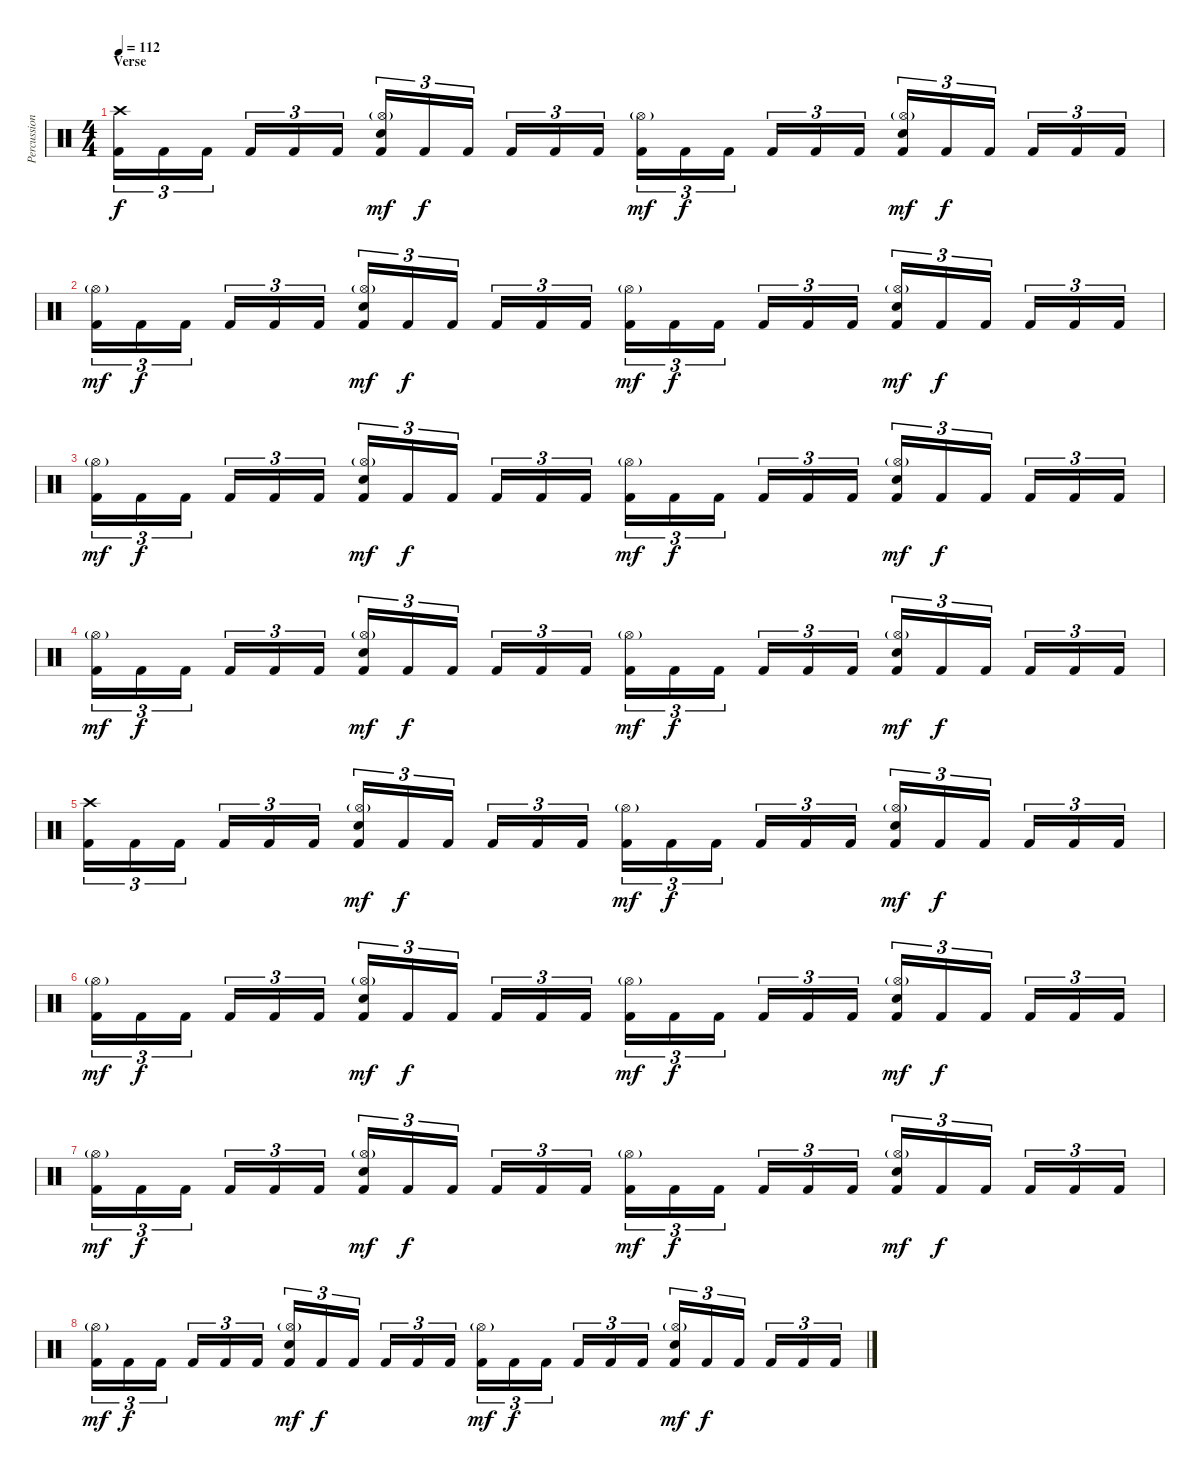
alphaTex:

\track ("Percussion" "Percussion") {instrument percussion}
\staff {score}
\articulation defaults
\ts (4 4)
\section ("" "Verse")
\tempo 112
\clef neutral
\ks c
("Crash high (hit)" "Kick (hit) 2").16{tu (3 2) dy f} "Kick (hit) 2".16{tu (3 2)} "Kick (hit) 2".16{tu (3 2)} "Kick (hit) 2".16{tu (3 2)} "Kick (hit) 2".16{tu (3 2)} "Kick (hit) 2".16{tu (3 2)} ("Hi-Hat (open)"{g} "Electric Snare (hit)" "Kick (hit) 2").16{tu (3 2) dy mf} "Kick (hit) 2".16{tu (3 2) dy f} "Kick (hit) 2".16{tu (3 2)} "Kick (hit) 2".16{tu (3 2)} "Kick (hit) 2".16{tu (3 2)} "Kick (hit) 2".16{tu (3 2)} ("Hi-Hat (open)"{g} "Kick (hit) 2").16{tu (3 2) dy mf} "Kick (hit) 2".16{tu (3 2) dy f} "Kick (hit) 2".16{tu (3 2)} "Kick (hit) 2".16{tu (3 2)} "Kick (hit) 2".16{tu (3 2)} "Kick (hit) 2".16{tu (3 2)} ("Hi-Hat (open)"{g} "Electric Snare (hit)" "Kick (hit) 2").16{tu (3 2) dy mf} "Kick (hit) 2".16{tu (3 2) dy f} "Kick (hit) 2".16{tu (3 2)} "Kick (hit) 2".16{tu (3 2)} "Kick (hit) 2".16{tu (3 2)} "Kick (hit) 2".16{tu (3 2)} |
("Hi-Hat (open)"{g} "Kick (hit) 2").16{tu (3 2) dy mf} "Kick (hit) 2".16{tu (3 2) dy f} "Kick (hit) 2".16{tu (3 2)} "Kick (hit) 2".16{tu (3 2)} "Kick (hit) 2".16{tu (3 2)} "Kick (hit) 2".16{tu (3 2)} ("Hi-Hat (open)"{g} "Electric Snare (hit)" "Kick (hit) 2").16{tu (3 2) dy mf} "Kick (hit) 2".16{tu (3 2) dy f} "Kick (hit) 2".16{tu (3 2)} "Kick (hit) 2".16{tu (3 2)} "Kick (hit) 2".16{tu (3 2)} "Kick (hit) 2".16{tu (3 2)} ("Hi-Hat (open)"{g} "Kick (hit) 2").16{tu (3 2) dy mf} "Kick (hit) 2".16{tu (3 2) dy f} "Kick (hit) 2".16{tu (3 2)} "Kick (hit) 2".16{tu (3 2)} "Kick (hit) 2".16{tu (3 2)} "Kick (hit) 2".16{tu (3 2)} ("Hi-Hat (open)"{g} "Electric Snare (hit)" "Kick (hit) 2").16{tu (3 2) dy mf} "Kick (hit) 2".16{tu (3 2) dy f} "Kick (hit) 2".16{tu (3 2)} "Kick (hit) 2".16{tu (3 2)} "Kick (hit) 2".16{tu (3 2)} "Kick (hit) 2".16{tu (3 2)} |
("Hi-Hat (open)"{g} "Kick (hit) 2").16{tu (3 2) dy mf} "Kick (hit) 2".16{tu (3 2) dy f} "Kick (hit) 2".16{tu (3 2)} "Kick (hit) 2".16{tu (3 2)} "Kick (hit) 2".16{tu (3 2)} "Kick (hit) 2".16{tu (3 2)} ("Hi-Hat (open)"{g} "Electric Snare (hit)" "Kick (hit) 2").16{tu (3 2) dy mf} "Kick (hit) 2".16{tu (3 2) dy f} "Kick (hit) 2".16{tu (3 2)} "Kick (hit) 2".16{tu (3 2)} "Kick (hit) 2".16{tu (3 2)} "Kick (hit) 2".16{tu (3 2)} ("Hi-Hat (open)"{g} "Kick (hit) 2").16{tu (3 2) dy mf} "Kick (hit) 2".16{tu (3 2) dy f} "Kick (hit) 2".16{tu (3 2)} "Kick (hit) 2".16{tu (3 2)} "Kick (hit) 2".16{tu (3 2)} "Kick (hit) 2".16{tu (3 2)} ("Hi-Hat (open)"{g} "Electric Snare (hit)" "Kick (hit) 2").16{tu (3 2) dy mf} "Kick (hit) 2".16{tu (3 2) dy f} "Kick (hit) 2".16{tu (3 2)} "Kick (hit) 2".16{tu (3 2)} "Kick (hit) 2".16{tu (3 2)} "Kick (hit) 2".16{tu (3 2)} |
("Hi-Hat (open)"{g} "Kick (hit) 2").16{tu (3 2) dy mf} "Kick (hit) 2".16{tu (3 2) dy f} "Kick (hit) 2".16{tu (3 2)} "Kick (hit) 2".16{tu (3 2)} "Kick (hit) 2".16{tu (3 2)} "Kick (hit) 2".16{tu (3 2)} ("Hi-Hat (open)"{g} "Electric Snare (hit)" "Kick (hit) 2").16{tu (3 2) dy mf} "Kick (hit) 2".16{tu (3 2) dy f} "Kick (hit) 2".16{tu (3 2)} "Kick (hit) 2".16{tu (3 2)} "Kick (hit) 2".16{tu (3 2)} "Kick (hit) 2".16{tu (3 2)} ("Hi-Hat (open)"{g} "Kick (hit) 2").16{tu (3 2) dy mf} "Kick (hit) 2".16{tu (3 2) dy f} "Kick (hit) 2".16{tu (3 2)} "Kick (hit) 2".16{tu (3 2)} "Kick (hit) 2".16{tu (3 2)} "Kick (hit) 2".16{tu (3 2)} ("Hi-Hat (open)"{g} "Electric Snare (hit)" "Kick (hit) 2").16{tu (3 2) dy mf} "Kick (hit) 2".16{tu (3 2) dy f} "Kick (hit) 2".16{tu (3 2)} "Kick (hit) 2".16{tu (3 2)} "Kick (hit) 2".16{tu (3 2)} "Kick (hit) 2".16{tu (3 2)} |
("Crash high (hit)" "Kick (hit) 2").16{tu (3 2)} "Kick (hit) 2".16{tu (3 2)} "Kick (hit) 2".16{tu (3 2)} "Kick (hit) 2".16{tu (3 2)} "Kick (hit) 2".16{tu (3 2)} "Kick (hit) 2".16{tu (3 2)} ("Hi-Hat (open)"{g} "Electric Snare (hit)" "Kick (hit) 2").16{tu (3 2) dy mf} "Kick (hit) 2".16{tu (3 2) dy f} "Kick (hit) 2".16{tu (3 2)} "Kick (hit) 2".16{tu (3 2)} "Kick (hit) 2".16{tu (3 2)} "Kick (hit) 2".16{tu (3 2)} ("Hi-Hat (open)"{g} "Kick (hit) 2").16{tu (3 2) dy mf} "Kick (hit) 2".16{tu (3 2) dy f} "Kick (hit) 2".16{tu (3 2)} "Kick (hit) 2".16{tu (3 2)} "Kick (hit) 2".16{tu (3 2)} "Kick (hit) 2".16{tu (3 2)} ("Hi-Hat (open)"{g} "Electric Snare (hit)" "Kick (hit) 2").16{tu (3 2) dy mf} "Kick (hit) 2".16{tu (3 2) dy f} "Kick (hit) 2".16{tu (3 2)} "Kick (hit) 2".16{tu (3 2)} "Kick (hit) 2".16{tu (3 2)} "Kick (hit) 2".16{tu (3 2)} |
("Hi-Hat (open)"{g} "Kick (hit) 2").16{tu (3 2) dy mf} "Kick (hit) 2".16{tu (3 2) dy f} "Kick (hit) 2".16{tu (3 2)} "Kick (hit) 2".16{tu (3 2)} "Kick (hit) 2".16{tu (3 2)} "Kick (hit) 2".16{tu (3 2)} ("Hi-Hat (open)"{g} "Electric Snare (hit)" "Kick (hit) 2").16{tu (3 2) dy mf} "Kick (hit) 2".16{tu (3 2) dy f} "Kick (hit) 2".16{tu (3 2)} "Kick (hit) 2".16{tu (3 2)} "Kick (hit) 2".16{tu (3 2)} "Kick (hit) 2".16{tu (3 2)} ("Hi-Hat (open)"{g} "Kick (hit) 2").16{tu (3 2) dy mf} "Kick (hit) 2".16{tu (3 2) dy f} "Kick (hit) 2".16{tu (3 2)} "Kick (hit) 2".16{tu (3 2)} "Kick (hit) 2".16{tu (3 2)} "Kick (hit) 2".16{tu (3 2)} ("Hi-Hat (open)"{g} "Electric Snare (hit)" "Kick (hit) 2").16{tu (3 2) dy mf} "Kick (hit) 2".16{tu (3 2) dy f} "Kick (hit) 2".16{tu (3 2)} "Kick (hit) 2".16{tu (3 2)} "Kick (hit) 2".16{tu (3 2)} "Kick (hit) 2".16{tu (3 2)} |
("Hi-Hat (open)"{g} "Kick (hit) 2").16{tu (3 2) dy mf} "Kick (hit) 2".16{tu (3 2) dy f} "Kick (hit) 2".16{tu (3 2)} "Kick (hit) 2".16{tu (3 2)} "Kick (hit) 2".16{tu (3 2)} "Kick (hit) 2".16{tu (3 2)} ("Hi-Hat (open)"{g} "Electric Snare (hit)" "Kick (hit) 2").16{tu (3 2) dy mf} "Kick (hit) 2".16{tu (3 2) dy f} "Kick (hit) 2".16{tu (3 2)} "Kick (hit) 2".16{tu (3 2)} "Kick (hit) 2".16{tu (3 2)} "Kick (hit) 2".16{tu (3 2)} ("Hi-Hat (open)"{g} "Kick (hit) 2").16{tu (3 2) dy mf} "Kick (hit) 2".16{tu (3 2) dy f} "Kick (hit) 2".16{tu (3 2)} "Kick (hit) 2".16{tu (3 2)} "Kick (hit) 2".16{tu (3 2)} "Kick (hit) 2".16{tu (3 2)} ("Hi-Hat (open)"{g} "Electric Snare (hit)" "Kick (hit) 2").16{tu (3 2) dy mf} "Kick (hit) 2".16{tu (3 2) dy f} "Kick (hit) 2".16{tu (3 2)} "Kick (hit) 2".16{tu (3 2)} "Kick (hit) 2".16{tu (3 2)} "Kick (hit) 2".16{tu (3 2)} |
("Hi-Hat (open)"{g} "Kick (hit) 2").16{tu (3 2) dy mf} "Kick (hit) 2".16{tu (3 2) dy f} "Kick (hit) 2".16{tu (3 2)} "Kick (hit) 2".16{tu (3 2)} "Kick (hit) 2".16{tu (3 2)} "Kick (hit) 2".16{tu (3 2)} ("Hi-Hat (open)"{g} "Electric Snare (hit)" "Kick (hit) 2").16{tu (3 2) dy mf} "Kick (hit) 2".16{tu (3 2) dy f} "Kick (hit) 2".16{tu (3 2)} "Kick (hit) 2".16{tu (3 2)} "Kick (hit) 2".16{tu (3 2)} "Kick (hit) 2".16{tu (3 2)} ("Hi-Hat (open)"{g} "Kick (hit) 2").16{tu (3 2) dy mf} "Kick (hit) 2".16{tu (3 2) dy f} "Kick (hit) 2".16{tu (3 2)} "Kick (hit) 2".16{tu (3 2)} "Kick (hit) 2".16{tu (3 2)} "Kick (hit) 2".16{tu (3 2)} ("Hi-Hat (open)"{g} "Electric Snare (hit)" "Kick (hit) 2").16{tu (3 2) dy mf} "Kick (hit) 2".16{tu (3 2) dy f} "Kick (hit) 2".16{tu (3 2)} "Kick (hit) 2".16{tu (3 2)} "Kick (hit) 2".16{tu (3 2)} "Kick (hit) 2".16{tu (3 2)}
